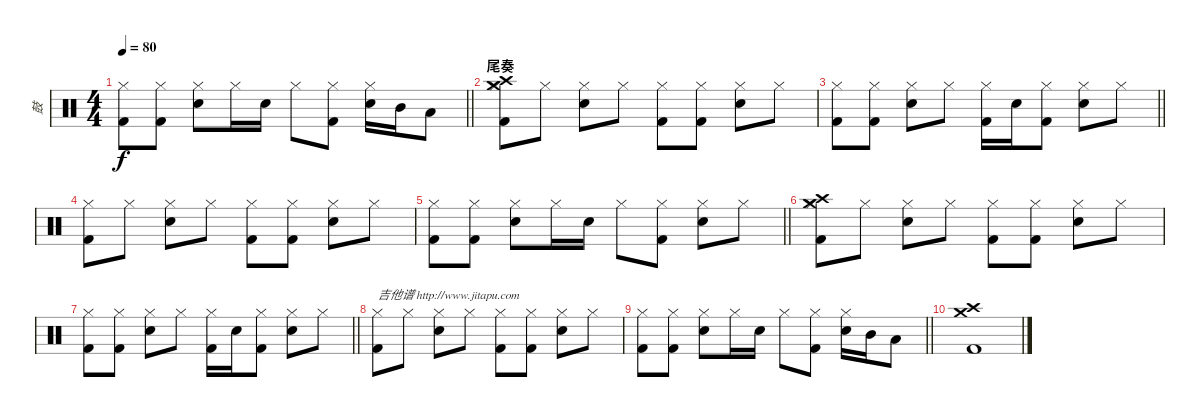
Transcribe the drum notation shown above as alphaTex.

\track ("鼓" "鼓") {instrument percussion}
\staff {score}
\articulation defaults
\ts (4 4)
\tempo 80
\clef neutral
\barLineRight lightlight
\ks c
("Hi-Hat (closed)" "Kick (hit) 2").8{dy f} ("Hi-Hat (closed)" "Kick (hit) 2").8 ("Hi-Hat (closed)" "Electric Snare (hit)").8 "Hi-Hat (closed)".16 "Electric Snare (hit)".16 "Hi-Hat (closed)".8 ("Hi-Hat (closed)" "Kick (hit) 2").8 ("Hi-Hat (closed)" "Electric Snare (hit)").16 "Mid Tom (hit)".16 "Low Tom (hit)".8 |
\section ("" "尾奏")
("Hi-Hat (closed)" "Crash medium (hit)" "Crash high (hit)" "Kick (hit) 2").8 "Hi-Hat (closed)".8 ("Hi-Hat (closed)" "Electric Snare (hit)").8 "Hi-Hat (closed)".8 ("Hi-Hat (closed)" "Kick (hit) 2").8 ("Hi-Hat (closed)" "Kick (hit) 2").8 ("Hi-Hat (closed)" "Electric Snare (hit)").8 "Hi-Hat (closed)".8 |
\barLineRight lightlight
("Hi-Hat (closed)" "Kick (hit) 2").8 ("Hi-Hat (closed)" "Kick (hit) 2").8 ("Hi-Hat (closed)" "Electric Snare (hit)").8 "Hi-Hat (closed)".8 ("Hi-Hat (closed)" "Kick (hit) 2").16 "Electric Snare (hit)".16 ("Hi-Hat (closed)" "Kick (hit) 2").8 ("Hi-Hat (closed)" "Electric Snare (hit)").8 "Hi-Hat (closed)".8 |
("Hi-Hat (closed)" "Kick (hit) 2").8 "Hi-Hat (closed)".8 ("Hi-Hat (closed)" "Electric Snare (hit)").8 "Hi-Hat (closed)".8 ("Hi-Hat (closed)" "Kick (hit) 2").8 ("Hi-Hat (closed)" "Kick (hit) 2").8 ("Hi-Hat (closed)" "Electric Snare (hit)").8 "Hi-Hat (closed)".8 |
\barLineRight lightlight
("Hi-Hat (closed)" "Kick (hit) 2").8 ("Hi-Hat (closed)" "Kick (hit) 2").8 ("Hi-Hat (closed)" "Electric Snare (hit)").8 "Hi-Hat (closed)".16 "Electric Snare (hit)".16 "Hi-Hat (closed)".8 ("Hi-Hat (closed)" "Kick (hit) 2").8 ("Hi-Hat (closed)" "Electric Snare (hit)").8 "Hi-Hat (closed)".8 |
("Hi-Hat (closed)" "Crash medium (hit)" "Crash high (hit)" "Kick (hit) 2").8 "Hi-Hat (closed)".8 ("Hi-Hat (closed)" "Electric Snare (hit)").8 "Hi-Hat (closed)".8 ("Hi-Hat (closed)" "Kick (hit) 2").8 ("Hi-Hat (closed)" "Kick (hit) 2").8 ("Hi-Hat (closed)" "Electric Snare (hit)").8 "Hi-Hat (closed)".8 |
\barLineRight lightlight
("Hi-Hat (closed)" "Kick (hit) 2").8 ("Hi-Hat (closed)" "Kick (hit) 2").8 ("Hi-Hat (closed)" "Electric Snare (hit)").8 "Hi-Hat (closed)".8 ("Hi-Hat (closed)" "Kick (hit) 2").16 "Electric Snare (hit)".16 ("Hi-Hat (closed)" "Kick (hit) 2").8 ("Hi-Hat (closed)" "Electric Snare (hit)").8 "Hi-Hat (closed)".8 |
("Hi-Hat (closed)" "Kick (hit) 2").8{txt "吉他谱 http://www.jitapu.com"} "Hi-Hat (closed)".8 ("Hi-Hat (closed)" "Electric Snare (hit)").8 "Hi-Hat (closed)".8 ("Hi-Hat (closed)" "Kick (hit) 2").8 ("Hi-Hat (closed)" "Kick (hit) 2").8 ("Hi-Hat (closed)" "Electric Snare (hit)").8 "Hi-Hat (closed)".8 |
\barLineRight lightlight
("Hi-Hat (closed)" "Kick (hit) 2").8 ("Hi-Hat (closed)" "Kick (hit) 2").8 ("Hi-Hat (closed)" "Electric Snare (hit)").8 "Hi-Hat (closed)".16 "Electric Snare (hit)".16 "Hi-Hat (closed)".8 ("Hi-Hat (closed)" "Kick (hit) 2").8 ("Hi-Hat (closed)" "Electric Snare (hit)").16 "Mid Tom (hit)".16 "Low Tom (hit)".8 |
("Crash medium (hit)" "Crash high (hit)" "Kick (hit) 2").1
